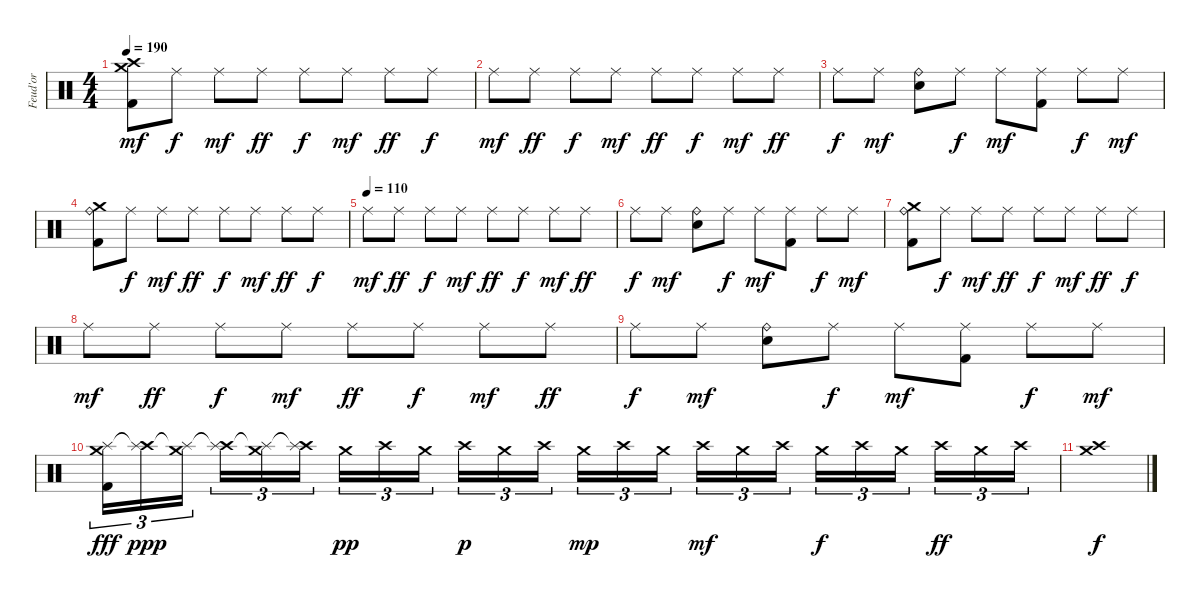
\track ("Feud'or" "Feud'or") {instrument percussion}
\staff {score}
\articulation defaults
\ts (4 4)
\tempo 190
\clef neutral
\ks c
("Crash high (hit)" "Crash medium (hit)" "Kick (hit) 2").8{dy mf} "Ride (middle)".8{dy f} "Ride (middle)".8{dy mf} "Ride (middle)".8{dy ff} "Ride (middle)".8{dy f} "Ride (middle)".8{dy mf} "Ride (middle)".8{dy ff} "Ride (middle)".8{dy f} |
"Ride (middle)".8{dy mf} "Ride (middle)".8{dy ff} "Ride (middle)".8{dy f} "Ride (middle)".8{dy mf} "Ride (middle)".8{dy ff} "Ride (middle)".8{dy f} "Ride (middle)".8{dy mf} "Ride (middle)".8{dy ff} |
"Ride (middle)".8{dy f} "Ride (middle)".8{dy mf} ("Ride (bell)" "Snare (hit) 2").8 "Ride (middle)".8{dy f} "Ride (middle)".8{dy mf} ("Ride (middle)" "Kick (hit) 2").8 "Ride (middle)".8{dy f} "Ride (middle)".8{dy mf} |
("Ride (bell)" "Crash medium (hit)" "Kick (hit) 2").8 "Ride (middle)".8{dy f} "Ride (middle)".8{dy mf} "Ride (middle)".8{dy ff} "Ride (middle)".8{dy f} "Ride (middle)".8{dy mf} "Ride (middle)".8{dy ff} "Ride (middle)".8{dy f} |
\tempo (110)
"Ride (middle)".8{dy mf} "Ride (middle)".8{dy ff} "Ride (middle)".8{dy f} "Ride (middle)".8{dy mf} "Ride (middle)".8{dy ff} "Ride (middle)".8{dy f} "Ride (middle)".8{dy mf} "Ride (middle)".8{dy ff} |
"Ride (middle)".8{dy f} "Ride (middle)".8{dy mf} ("Ride (bell)" "Snare (hit) 2").8 "Ride (middle)".8{dy f} "Ride (middle)".8{dy mf} ("Ride (middle)" "Kick (hit) 2").8 "Ride (middle)".8{dy f} "Ride (middle)".8{dy mf} |
("Ride (bell)" "Crash medium (hit)" "Kick (hit) 2").8 "Ride (middle)".8{dy f} "Ride (middle)".8{dy mf} "Ride (middle)".8{dy ff} "Ride (middle)".8{dy f} "Ride (middle)".8{dy mf} "Ride (middle)".8{dy ff} "Ride (middle)".8{dy f} |
"Ride (middle)".8{dy mf} "Ride (middle)".8{dy ff} "Ride (middle)".8{dy f} "Ride (middle)".8{dy mf} "Ride (middle)".8{dy ff} "Ride (middle)".8{dy f} "Ride (middle)".8{dy mf} "Ride (middle)".8{dy ff} |
"Ride (middle)".8{dy f} "Ride (middle)".8{dy mf} ("Ride (bell)" "Snare (hit) 2").8 "Ride (middle)".8{dy f} "Ride (middle)".8{dy mf} ("Ride (middle)" "Kick (hit) 2").8 "Ride (middle)".8{dy f} "Ride (middle)".8{dy mf} |
("Crash medium (hit)" "Splash (hit)" "Kick (hit) 2").16{tu (3 2) dy fff} ("Crash high (hit)" "Splash (hit)"{t}).16{tu (3 2) dy ppp} ("Crash medium (hit)" "Splash (hit)"{t}).16{tu (3 2) beam splitsecondary} ("Crash high (hit)" "Splash (hit)"{t}).16{tu (3 2)} ("Crash medium (hit)" "Splash (hit)"{t}).16{tu (3 2)} ("Crash high (hit)" "Splash (hit)"{t}).16{tu (3 2)} "Crash medium (hit)".16{tu (3 2) dy pp} "Crash high (hit)".16{tu (3 2)} "Crash medium (hit)".16{tu (3 2) beam splitsecondary} "Crash high (hit)".16{tu (3 2) dy p} "Crash medium (hit)".16{tu (3 2)} "Crash high (hit)".16{tu (3 2)} "Crash medium (hit)".16{tu (3 2) dy mp} "Crash high (hit)".16{tu (3 2)} "Crash medium (hit)".16{tu (3 2) beam splitsecondary} "Crash high (hit)".16{tu (3 2) dy mf} "Crash medium (hit)".16{tu (3 2)} "Crash high (hit)".16{tu (3 2)} "Crash medium (hit)".16{tu (3 2) dy f} "Crash high (hit)".16{tu (3 2)} "Crash medium (hit)".16{tu (3 2) beam splitsecondary} "Crash high (hit)".16{tu (3 2) dy ff} "Crash medium (hit)".16{tu (3 2)} "Crash high (hit)".16{tu (3 2)} |
("Crash high (hit)" "Crash medium (hit)").1{dy f}
